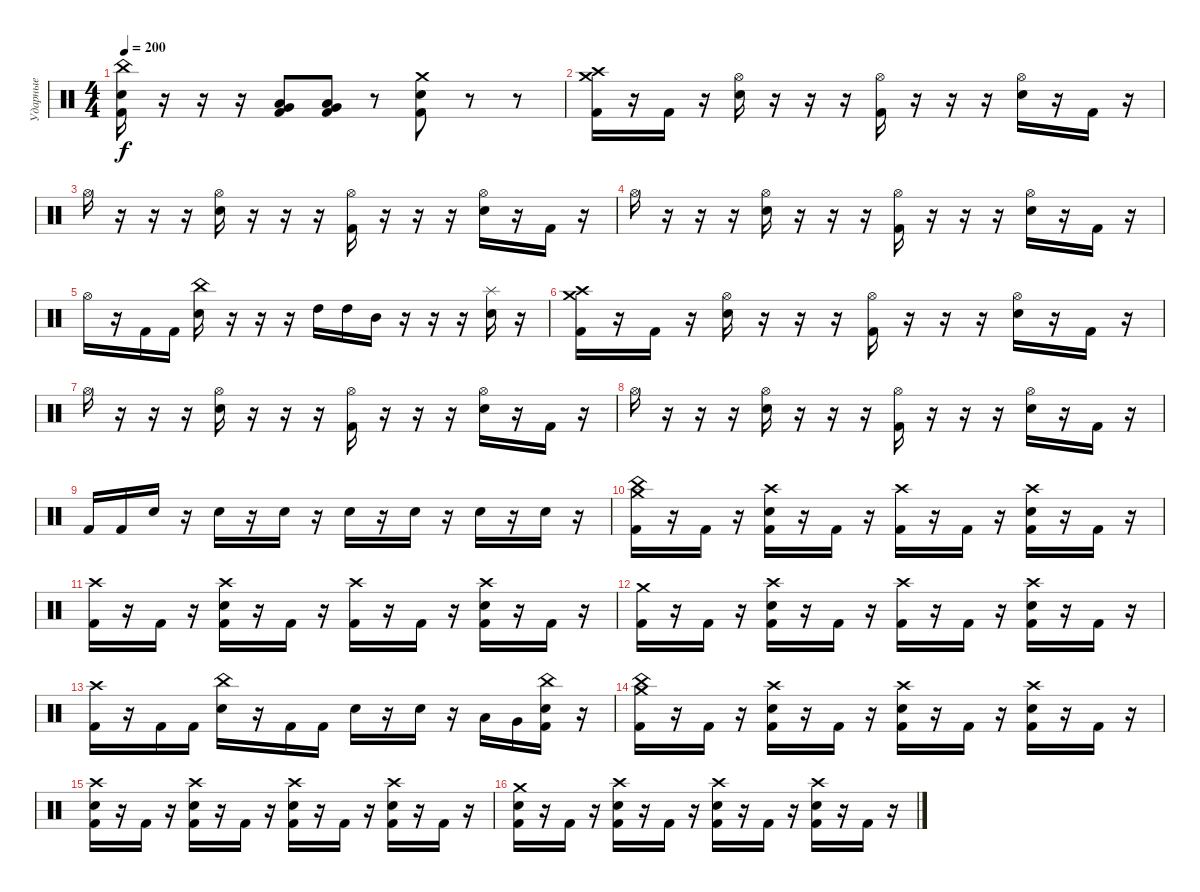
\track ("Ударные" "Ударные") {instrument percussion}
\staff {score}
\articulation defaults
\ts (4 4)
\tempo 200
\clef neutral
\ks c
("Kick (hit) 2" "Electric Snare (hit)" "China (hit)").16{dy f} r.16 r.16 r.16 ("Kick (hit) 2" "Low Floor Tom (hit)" "Very Low Tom (hit)").8 ("Kick (hit) 2" "Low Floor Tom (hit)" "Very Low Tom (hit)").8 r.8 ("Kick (hit) 2" "Electric Snare (hit)" "Crash medium (hit)").8 r.8 r.8 |
("Kick (hit) 2" "Crash high (hit)" "Crash medium (hit)").16 r.16 "Kick (hit) 2".16 r.16 ("Electric Snare (hit)" "Hi-Hat (open)").16 r.16 r.16 r.16 ("Kick (hit) 2" "Hi-Hat (open)").16 r.16 r.16 r.16 ("Electric Snare (hit)" "Hi-Hat (open)").16 r.16 "Kick (hit) 2".16 r.16 |
"Hi-Hat (open)".16 r.16 r.16 r.16 ("Electric Snare (hit)" "Hi-Hat (open)").16 r.16 r.16 r.16 ("Kick (hit) 2" "Hi-Hat (open)").16 r.16 r.16 r.16 ("Electric Snare (hit)" "Hi-Hat (open)").16 r.16 "Kick (hit) 2".16 r.16 |
"Hi-Hat (open)".16 r.16 r.16 r.16 ("Electric Snare (hit)" "Hi-Hat (open)").16 r.16 r.16 r.16 ("Kick (hit) 2" "Hi-Hat (open)").16 r.16 r.16 r.16 ("Electric Snare (hit)" "Hi-Hat (open)").16 r.16 "Kick (hit) 2".16 r.16 |
"Hi-Hat (open)".16 r.16 "Kick (hit) 2".16 "Kick (hit) 2".16 ("Electric Snare (hit)" "China (hit)").16 r.16 r.16 r.16 "High Tom (hit)".16 "High Tom (hit)".16 "Mid Tom (hit)".16 r.16 r.16 r.16 ("Electric Snare (hit)" "Splash (hit)").16 r.16 |
("Kick (hit) 2" "Crash high (hit)" "Crash medium (hit)").16 r.16 "Kick (hit) 2".16 r.16 ("Electric Snare (hit)" "Hi-Hat (open)").16 r.16 r.16 r.16 ("Kick (hit) 2" "Hi-Hat (open)").16 r.16 r.16 r.16 ("Electric Snare (hit)" "Hi-Hat (open)").16 r.16 "Kick (hit) 2".16 r.16 |
"Hi-Hat (open)".16 r.16 r.16 r.16 ("Electric Snare (hit)" "Hi-Hat (open)").16 r.16 r.16 r.16 ("Kick (hit) 2" "Hi-Hat (open)").16 r.16 r.16 r.16 ("Electric Snare (hit)" "Hi-Hat (open)").16 r.16 "Kick (hit) 2".16 r.16 |
"Hi-Hat (open)".16 r.16 r.16 r.16 ("Electric Snare (hit)" "Hi-Hat (open)").16 r.16 r.16 r.16 ("Kick (hit) 2" "Hi-Hat (open)").16 r.16 r.16 r.16 ("Electric Snare (hit)" "Hi-Hat (open)").16 r.16 "Kick (hit) 2".16 r.16 |
"Kick (hit) 2".16 "Kick (hit) 2".16 "Electric Snare (hit)".16 r.16 "Electric Snare (hit)".16 r.16 "Electric Snare (hit)".16 r.16 "Electric Snare (hit)".16 r.16 "Electric Snare (hit)".16 r.16 "Electric Snare (hit)".16 r.16 "Electric Snare (hit)".16 r.16 |
("Kick (hit) 2" "China (hit)" "Crash medium (hit)").16 r.16 "Kick (hit) 2".16 r.16 ("Kick (hit) 2" "Electric Snare (hit)" "Crash high (hit)").16 r.16 "Kick (hit) 2".16 r.16 ("Kick (hit) 2" "Crash high (hit)").16 r.16 "Kick (hit) 2".16 r.16 ("Kick (hit) 2" "Electric Snare (hit)" "Crash high (hit)").16 r.16 "Kick (hit) 2".16 r.16 |
("Kick (hit) 2" "Crash high (hit)").16 r.16 "Kick (hit) 2".16 r.16 ("Kick (hit) 2" "Electric Snare (hit)" "Crash high (hit)").16 r.16 "Kick (hit) 2".16 r.16 ("Kick (hit) 2" "Crash high (hit)").16 r.16 "Kick (hit) 2".16 r.16 ("Kick (hit) 2" "Electric Snare (hit)" "Crash high (hit)").16 r.16 "Kick (hit) 2".16 r.16 |
("Kick (hit) 2" "Crash medium (hit)").16 r.16 "Kick (hit) 2".16 r.16 ("Kick (hit) 2" "Electric Snare (hit)" "Crash high (hit)").16 r.16 "Kick (hit) 2".16 r.16 ("Kick (hit) 2" "Crash high (hit)").16 r.16 "Kick (hit) 2".16 r.16 ("Kick (hit) 2" "Electric Snare (hit)" "Crash high (hit)").16 r.16 "Kick (hit) 2".16 r.16 |
("Kick (hit) 2" "Crash high (hit)").16 r.16 "Kick (hit) 2".16 "Kick (hit) 2".16 ("Electric Snare (hit)" "China (hit)").16 r.16 "Kick (hit) 2".16 "Kick (hit) 2".16 "Electric Snare (hit)".16 r.16 "Electric Snare (hit)".16 r.16 "Low Tom (hit)".16 "Very Low Tom (hit)".16 ("Kick (hit) 2" "Electric Snare (hit)" "China (hit)").16 r.16 |
("Kick (hit) 2" "China (hit)" "Crash medium (hit)").16 r.16 "Kick (hit) 2".16 r.16 ("Kick (hit) 2" "Electric Snare (hit)" "Crash high (hit)").16 r.16 "Kick (hit) 2".16 r.16 ("Kick (hit) 2" "Electric Snare (hit)" "Crash high (hit)").16 r.16 "Kick (hit) 2".16 r.16 ("Kick (hit) 2" "Electric Snare (hit)" "Crash high (hit)").16 r.16 "Kick (hit) 2".16 r.16 |
("Kick (hit) 2" "Electric Snare (hit)" "Crash high (hit)").16 r.16 "Kick (hit) 2".16 r.16 ("Kick (hit) 2" "Electric Snare (hit)" "Crash high (hit)").16 r.16 "Kick (hit) 2".16 r.16 ("Kick (hit) 2" "Electric Snare (hit)" "Crash high (hit)").16 r.16 "Kick (hit) 2".16 r.16 ("Kick (hit) 2" "Electric Snare (hit)" "Crash high (hit)").16 r.16 "Kick (hit) 2".16 r.16 |
("Kick (hit) 2" "Electric Snare (hit)" "Crash medium (hit)").16 r.16 "Kick (hit) 2".16 r.16 ("Kick (hit) 2" "Electric Snare (hit)" "Crash high (hit)").16 r.16 "Kick (hit) 2".16 r.16 ("Kick (hit) 2" "Electric Snare (hit)" "Crash high (hit)").16 r.16 "Kick (hit) 2".16 r.16 ("Kick (hit) 2" "Electric Snare (hit)" "Crash high (hit)").16 r.16 "Kick (hit) 2".16 r.16
